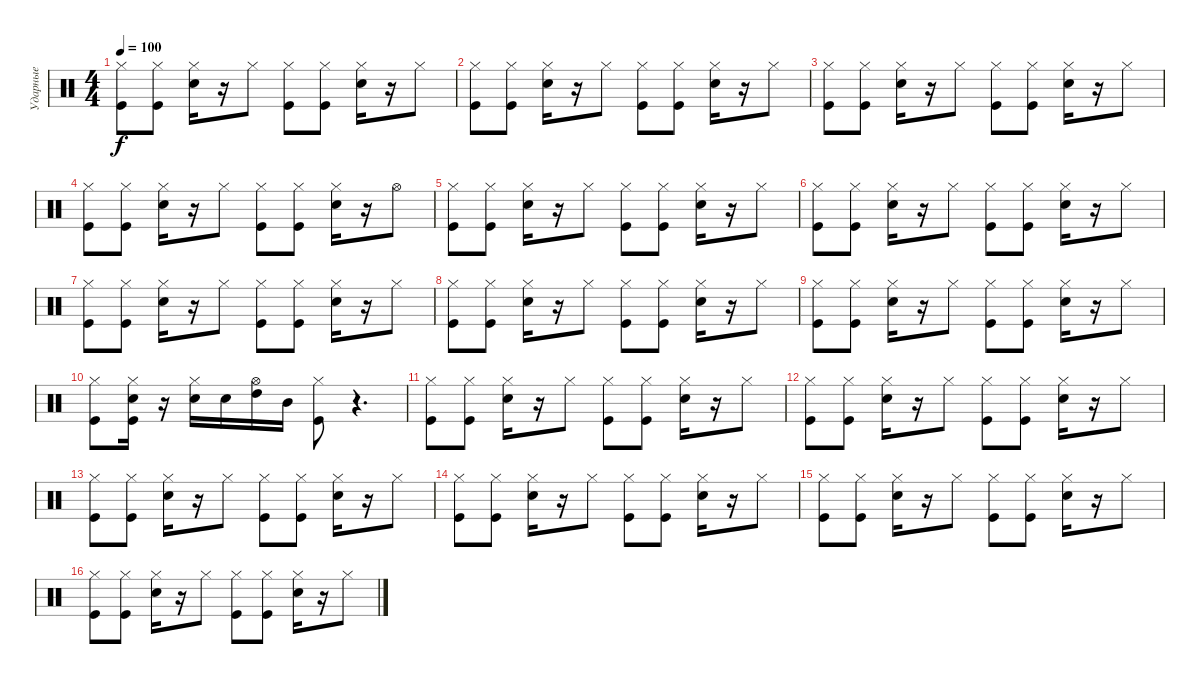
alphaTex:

\track ("Ударные" "Ударные") {instrument percussion}
\staff {score}
\articulation defaults
\ts (4 4)
\tempo 100
\clef neutral
\ks c
("Hi-Hat (closed)" "Kick (hit)").8{dy f} ("Kick (hit)" "Hi-Hat (closed)").8 ("Hi-Hat (closed)" "Snare (hit) 2").16 r.16 "Hi-Hat (closed)".8 ("Hi-Hat (closed)" "Kick (hit)").8 ("Kick (hit)" "Hi-Hat (closed)").8 ("Hi-Hat (closed)" "Snare (hit) 2").16 r.16 "Hi-Hat (closed)".8 |
("Hi-Hat (closed)" "Kick (hit)").8 ("Kick (hit)" "Hi-Hat (closed)").8 ("Hi-Hat (closed)" "Snare (hit) 2").16 r.16 "Hi-Hat (closed)".8 ("Hi-Hat (closed)" "Kick (hit)").8 ("Kick (hit)" "Hi-Hat (closed)").8 ("Hi-Hat (closed)" "Snare (hit) 2").16 r.16 "Hi-Hat (closed)".8 |
("Hi-Hat (closed)" "Kick (hit)").8 ("Kick (hit)" "Hi-Hat (closed)").8 ("Hi-Hat (closed)" "Snare (hit) 2").16 r.16 "Hi-Hat (closed)".8 ("Hi-Hat (closed)" "Kick (hit)").8 ("Kick (hit)" "Hi-Hat (closed)").8 ("Hi-Hat (closed)" "Snare (hit) 2").16 r.16 "Hi-Hat (closed)".8 |
("Hi-Hat (closed)" "Kick (hit)").8 ("Kick (hit)" "Hi-Hat (closed)").8 ("Hi-Hat (closed)" "Snare (hit) 2").16 r.16 "Hi-Hat (closed)".8 ("Hi-Hat (closed)" "Kick (hit)").8 ("Kick (hit)" "Hi-Hat (closed)").8 ("Hi-Hat (closed)" "Snare (hit) 2").16 r.16 "Hi-Hat (open)".8 |
("Hi-Hat (closed)" "Kick (hit)").8 ("Kick (hit)" "Hi-Hat (closed)").8 ("Hi-Hat (closed)" "Snare (hit) 2").16 r.16 "Hi-Hat (closed)".8 ("Hi-Hat (closed)" "Kick (hit)").8 ("Kick (hit)" "Hi-Hat (closed)").8 ("Hi-Hat (closed)" "Snare (hit) 2").16 r.16 "Hi-Hat (closed)".8 |
("Hi-Hat (closed)" "Kick (hit)").8 ("Kick (hit)" "Hi-Hat (closed)").8 ("Hi-Hat (closed)" "Snare (hit) 2").16 r.16 "Hi-Hat (closed)".8 ("Hi-Hat (closed)" "Kick (hit)").8 ("Kick (hit)" "Hi-Hat (closed)").8 ("Hi-Hat (closed)" "Snare (hit) 2").16 r.16 "Hi-Hat (closed)".8 |
("Hi-Hat (closed)" "Kick (hit)").8 ("Kick (hit)" "Hi-Hat (closed)").8 ("Hi-Hat (closed)" "Snare (hit) 2").16 r.16 "Hi-Hat (closed)".8 ("Hi-Hat (closed)" "Kick (hit)").8 ("Kick (hit)" "Hi-Hat (closed)").8 ("Hi-Hat (closed)" "Snare (hit) 2").16 r.16 "Hi-Hat (closed)".8 |
("Hi-Hat (closed)" "Kick (hit)").8 ("Kick (hit)" "Hi-Hat (closed)").8 ("Hi-Hat (closed)" "Snare (hit) 2").16 r.16 "Hi-Hat (closed)".8 ("Hi-Hat (closed)" "Kick (hit)").8 ("Kick (hit)" "Hi-Hat (closed)").8 ("Hi-Hat (closed)" "Snare (hit) 2").16 r.16 "Hi-Hat (closed)".8 |
("Hi-Hat (closed)" "Kick (hit)").8 ("Kick (hit)" "Hi-Hat (closed)").8 ("Hi-Hat (closed)" "Snare (hit) 2").16 r.16 "Hi-Hat (closed)".8 ("Hi-Hat (closed)" "Kick (hit)").8 ("Kick (hit)" "Hi-Hat (closed)").8 ("Hi-Hat (closed)" "Snare (hit) 2").16 r.16 "Hi-Hat (closed)".8 |
("Hi-Hat (closed)" "Kick (hit)").8 ("Hi-Hat (closed)" "Snare (hit) 2" "Kick (hit)").16 r.16 ("Hi-Hat (closed)" "Snare (hit) 2").16 "Snare (hit) 2".16 ("High Tom (hit)" "Hi-Hat (open)").16 "Mid Tom (hit)".16 ("Hi-Hat (closed)" "Kick (hit)").8 r.4{d} |
("Hi-Hat (closed)" "Kick (hit)").8 ("Kick (hit)" "Hi-Hat (closed)").8 ("Hi-Hat (closed)" "Snare (hit) 2").16 r.16 "Hi-Hat (closed)".8 ("Hi-Hat (closed)" "Kick (hit)").8 ("Kick (hit)" "Hi-Hat (closed)").8 ("Hi-Hat (closed)" "Snare (hit) 2").16 r.16 "Hi-Hat (closed)".8 |
("Hi-Hat (closed)" "Kick (hit)").8 ("Kick (hit)" "Hi-Hat (closed)").8 ("Hi-Hat (closed)" "Snare (hit) 2").16 r.16 "Hi-Hat (closed)".8 ("Hi-Hat (closed)" "Kick (hit)").8 ("Kick (hit)" "Hi-Hat (closed)").8 ("Hi-Hat (closed)" "Snare (hit) 2").16 r.16 "Hi-Hat (closed)".8 |
("Hi-Hat (closed)" "Kick (hit)").8 ("Kick (hit)" "Hi-Hat (closed)").8 ("Hi-Hat (closed)" "Snare (hit) 2").16 r.16 "Hi-Hat (closed)".8 ("Hi-Hat (closed)" "Kick (hit)").8 ("Kick (hit)" "Hi-Hat (closed)").8 ("Hi-Hat (closed)" "Snare (hit) 2").16 r.16 "Hi-Hat (closed)".8 |
("Hi-Hat (closed)" "Kick (hit)").8 ("Kick (hit)" "Hi-Hat (closed)").8 ("Hi-Hat (closed)" "Snare (hit) 2").16 r.16 "Hi-Hat (closed)".8 ("Hi-Hat (closed)" "Kick (hit)").8 ("Kick (hit)" "Hi-Hat (closed)").8 ("Hi-Hat (closed)" "Snare (hit) 2").16 r.16 "Hi-Hat (closed)".8 |
("Hi-Hat (closed)" "Kick (hit)").8 ("Kick (hit)" "Hi-Hat (closed)").8 ("Hi-Hat (closed)" "Snare (hit) 2").16 r.16 "Hi-Hat (closed)".8 ("Hi-Hat (closed)" "Kick (hit)").8 ("Kick (hit)" "Hi-Hat (closed)").8 ("Hi-Hat (closed)" "Snare (hit) 2").16 r.16 "Hi-Hat (closed)".8 |
("Hi-Hat (closed)" "Kick (hit)").8 ("Kick (hit)" "Hi-Hat (closed)").8 ("Hi-Hat (closed)" "Snare (hit) 2").16 r.16 "Hi-Hat (closed)".8 ("Hi-Hat (closed)" "Kick (hit)").8 ("Kick (hit)" "Hi-Hat (closed)").8 ("Hi-Hat (closed)" "Snare (hit) 2").16 r.16 "Hi-Hat (closed)".8
